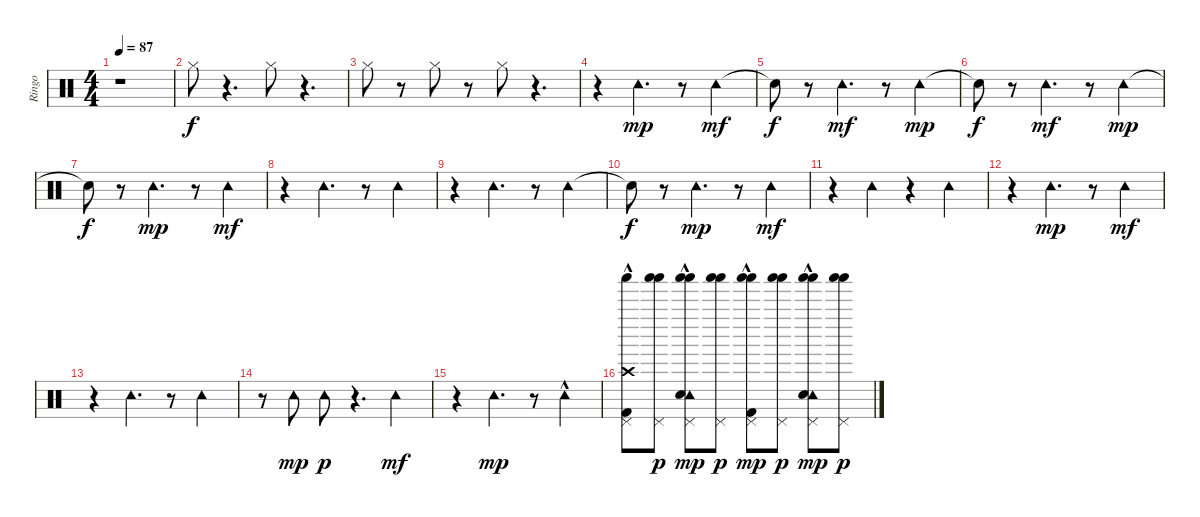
\track ("Ringo" "Ringo") {instrument percussion}
\staff {score}
\articulation defaults
\ts (4 4)
\tempo 87
\clef neutral
\ks c
r.1{dy f} |
"Hi-Hat (closed)".8 r.4{d} "Hi-Hat (closed)".8 r.4{d} |
"Hi-Hat (closed)".8 r.8 "Hi-Hat (closed)".8 r.8 "Hi-Hat (closed)".8 r.4{d} |
r.4 "Tambourine (hit)".4{d dy mp} r.8 "Tambourine (hit)".4{dy mf} |
"Snare (hit)"{t}.8{dy f} r.8 "Tambourine (hit)".4{d dy mf} r.8 "Tambourine (hit)".4{dy mp} |
"Snare (hit)"{t}.8{dy f} r.8 "Tambourine (hit)".4{d dy mf} r.8 "Tambourine (hit)".4{dy mp} |
"Snare (hit)"{t}.8{dy f} r.8 "Tambourine (hit)".4{d dy mp} r.8 "Tambourine (hit)".4{dy mf} |
r.4 "Tambourine (hit)".4{d} r.8 "Tambourine (hit)".4 |
r.4 "Tambourine (hit)".4{d} r.8 "Tambourine (hit)".4 |
"Snare (hit)"{t}.8{dy f} r.8 "Tambourine (hit)".4{d dy mp} r.8 "Tambourine (hit)".4{dy mf} |
r.4 "Tambourine (hit)".4 r.4 "Tambourine (hit)".4 |
r.4 "Tambourine (hit)".4{d dy mp} r.8 "Tambourine (hit)".4{dy mf} |
r.4 "Tambourine (hit)".4{d} r.8 "Tambourine (hit)".4 |
r.8 "Tambourine (hit)".8{dy mp} "Tambourine (hit)".8{dy p} r.4{d} "Tambourine (hit)".4{dy mf} |
r.4 "Tambourine (hit)".4{d dy mp} r.8 "Tambourine (hit)"{hac}.4 |
("Crash high (hit)" "Pedal Hi-Hat (hit)" "Kick (hit) 2"{hac} "Shaker (hit)").8 ("Shaker (hit)" "Pedal Hi-Hat (hit)" "Shaker (hit)").8{dy p} ("Shaker (hit)" "Tambourine (hit)" "Pedal Hi-Hat (hit)" "Snare (hit) 2"{hac} "Shaker (hit)").8{dy mp} ("Shaker (hit)" "Pedal Hi-Hat (hit)" "Shaker (hit)").8{dy p} ("Shaker (hit)" "Pedal Hi-Hat (hit)" "Kick (hit) 2"{hac} "Shaker (hit)").8{dy mp} ("Shaker (hit)" "Pedal Hi-Hat (hit)" "Shaker (hit)").8{dy p} ("Shaker (hit)" "Tambourine (hit)" "Pedal Hi-Hat (hit)" "Snare (hit) 2"{hac} "Shaker (hit)").8{dy mp} ("Shaker (hit)" "Pedal Hi-Hat (hit)" "Shaker (hit)").8{dy p}
